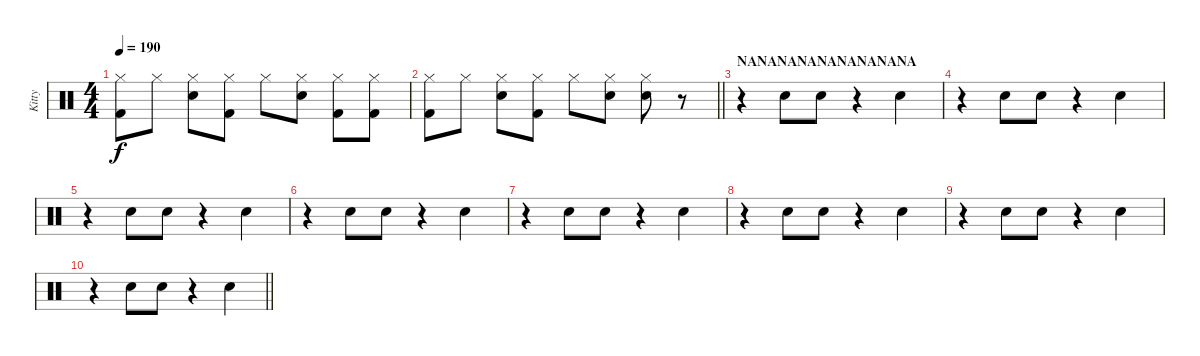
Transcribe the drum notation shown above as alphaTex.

\track ("Kitty" "Kitty") {instrument percussion}
\staff {score}
\articulation defaults
\ts (4 4)
\tempo 190
\clef neutral
\ks c
("Hi-Hat (closed)" "Kick (hit) 2").8{dy f} "Hi-Hat (closed)".8 ("Hi-Hat (closed)" "Snare (hit) 2").8 ("Hi-Hat (closed)" "Kick (hit) 2").8 "Hi-Hat (closed)".8 ("Hi-Hat (closed)" "Snare (hit) 2").8 ("Hi-Hat (closed)" "Kick (hit) 2").8 ("Hi-Hat (closed)" "Kick (hit) 2").8 |
\barLineRight lightlight
("Hi-Hat (closed)" "Kick (hit) 2").8 "Hi-Hat (closed)".8 ("Hi-Hat (closed)" "Snare (hit) 2").8 ("Hi-Hat (closed)" "Kick (hit) 2").8 "Hi-Hat (closed)".8 ("Hi-Hat (closed)" "Snare (hit) 2").8 ("Hi-Hat (closed)" "Snare (hit) 2").8 r.8 |
\section ("" "NANANANANANANANANA")
r.4 "Hand Clap (hit)".8 "Hand Clap (hit)".8 r.4 "Hand Clap (hit)".4 |
r.4 "Hand Clap (hit)".8 "Hand Clap (hit)".8 r.4 "Hand Clap (hit)".4 |
r.4 "Hand Clap (hit)".8 "Hand Clap (hit)".8 r.4 "Hand Clap (hit)".4 |
r.4 "Hand Clap (hit)".8 "Hand Clap (hit)".8 r.4 "Hand Clap (hit)".4 |
r.4 "Hand Clap (hit)".8 "Hand Clap (hit)".8 r.4 "Hand Clap (hit)".4 |
r.4 "Hand Clap (hit)".8 "Hand Clap (hit)".8 r.4 "Hand Clap (hit)".4 |
r.4 "Hand Clap (hit)".8 "Hand Clap (hit)".8 r.4 "Hand Clap (hit)".4 |
\barLineRight lightlight
r.4 "Hand Clap (hit)".8 "Hand Clap (hit)".8 r.4 "Hand Clap (hit)".4
